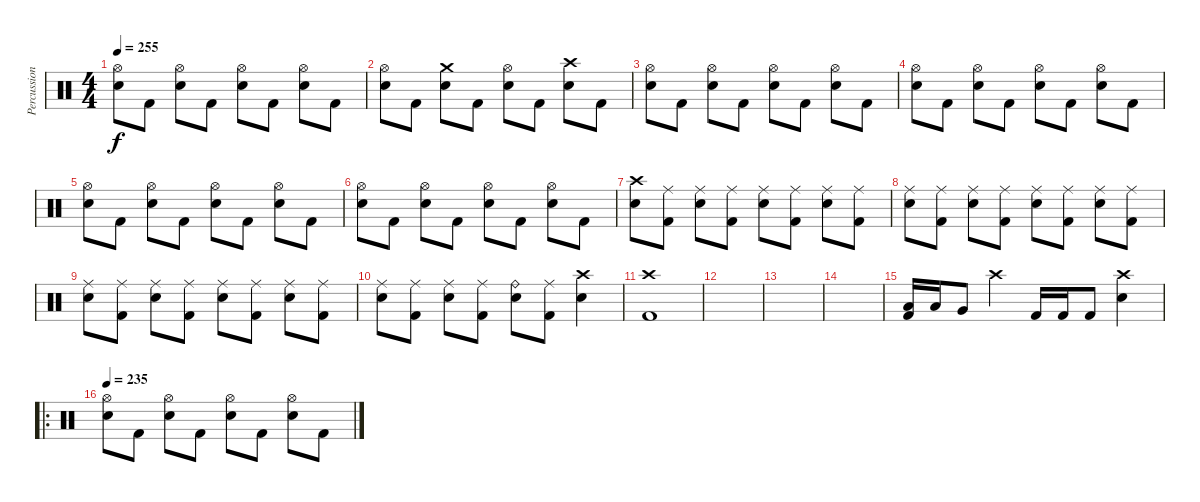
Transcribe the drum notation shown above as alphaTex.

\track ("Percussion" "Percussion") {instrument percussion}
\staff {score}
\articulation defaults
\ts (4 4)
\tempo 255
\clef neutral
\ks c
("Hi-Hat (open)" "Electric Snare (hit)").8{dy f} "Kick (hit) 2".8 ("Hi-Hat (open)" "Electric Snare (hit)").8 "Kick (hit) 2".8 ("Hi-Hat (open)" "Electric Snare (hit)").8 "Kick (hit) 2".8 ("Hi-Hat (open)" "Electric Snare (hit)").8 "Kick (hit) 2".8 |
("Hi-Hat (open)" "Electric Snare (hit)").8 "Kick (hit) 2".8 ("Crash medium (hit)" "Electric Snare (hit)").8 "Kick (hit) 2".8 ("Hi-Hat (open)" "Electric Snare (hit)").8 "Kick (hit) 2".8 ("Crash high (hit)" "Electric Snare (hit)").8 "Kick (hit) 2".8 |
("Hi-Hat (open)" "Electric Snare (hit)").8 "Kick (hit) 2".8 ("Hi-Hat (open)" "Electric Snare (hit)").8 "Kick (hit) 2".8 ("Hi-Hat (open)" "Electric Snare (hit)").8 "Kick (hit) 2".8 ("Hi-Hat (open)" "Electric Snare (hit)").8 "Kick (hit) 2".8 |
("Hi-Hat (open)" "Electric Snare (hit)").8 "Kick (hit) 2".8 ("Hi-Hat (open)" "Electric Snare (hit)").8 "Kick (hit) 2".8 ("Hi-Hat (open)" "Electric Snare (hit)").8 "Kick (hit) 2".8 ("Hi-Hat (open)" "Electric Snare (hit)").8 "Kick (hit) 2".8 |
("Hi-Hat (open)" "Electric Snare (hit)").8 "Kick (hit) 2".8 ("Hi-Hat (open)" "Electric Snare (hit)").8 "Kick (hit) 2".8 ("Hi-Hat (open)" "Electric Snare (hit)").8 "Kick (hit) 2".8 ("Hi-Hat (open)" "Electric Snare (hit)").8 "Kick (hit) 2".8 |
("Hi-Hat (open)" "Electric Snare (hit)").8 "Kick (hit) 2".8 ("Hi-Hat (open)" "Electric Snare (hit)").8 "Kick (hit) 2".8 ("Hi-Hat (open)" "Electric Snare (hit)").8 "Kick (hit) 2".8 ("Hi-Hat (open)" "Electric Snare (hit)").8 "Kick (hit) 2".8 |
("Crash high (hit)" "Electric Snare (hit)").8 ("Ride (middle)" "Kick (hit) 2").8 ("Ride (middle)" "Electric Snare (hit)").8 ("Ride (middle)" "Kick (hit) 2").8 ("Ride (middle)" "Electric Snare (hit)").8 ("Ride (middle)" "Kick (hit) 2").8 ("Ride (middle)" "Electric Snare (hit)").8 ("Ride (middle)" "Kick (hit) 2").8 |
("Ride (middle)" "Electric Snare (hit)").8 ("Ride (middle)" "Kick (hit) 2").8 ("Ride (middle)" "Electric Snare (hit)").8 ("Ride (middle)" "Kick (hit) 2").8 ("Ride (middle)" "Electric Snare (hit)").8 ("Ride (middle)" "Kick (hit) 2").8 ("Ride (middle)" "Electric Snare (hit)").8 ("Ride (middle)" "Kick (hit) 2").8 |
("Ride (middle)" "Electric Snare (hit)").8 ("Ride (middle)" "Kick (hit) 2").8 ("Ride (middle)" "Electric Snare (hit)").8 ("Ride (middle)" "Kick (hit) 2").8 ("Ride (middle)" "Electric Snare (hit)").8 ("Ride (middle)" "Kick (hit) 2").8 ("Ride (middle)" "Electric Snare (hit)").8 ("Ride (middle)" "Kick (hit) 2").8 |
("Ride (middle)" "Electric Snare (hit)").8 ("Ride (middle)" "Kick (hit) 2").8 ("Ride (middle)" "Electric Snare (hit)").8 ("Ride (middle)" "Kick (hit) 2").8 ("Ride (bell)" "Electric Snare (hit)").8 ("Ride (middle)" "Kick (hit) 2").8 ("Crash high (hit)" "Electric Snare (hit)").4 |
("Crash high (hit)" "Kick (hit) 2").1 |
|
|
|
("Low Tom (hit)" "Kick (hit) 2").16 "Low Tom (hit)".16 "Very Low Tom (hit)".8 "Crash high (hit)".4 "Kick (hit) 2".16 "Kick (hit) 2".16 "Kick (hit) 2".8 ("Crash high (hit)" "Electric Snare (hit)").4 |
\ro
\tempo 235
("Hi-Hat (open)" "Electric Snare (hit)").8 "Kick (hit) 2".8 ("Hi-Hat (open)" "Electric Snare (hit)").8 "Kick (hit) 2".8 ("Hi-Hat (open)" "Electric Snare (hit)").8 "Kick (hit) 2".8 ("Hi-Hat (open)" "Electric Snare (hit)").8 "Kick (hit) 2".8
